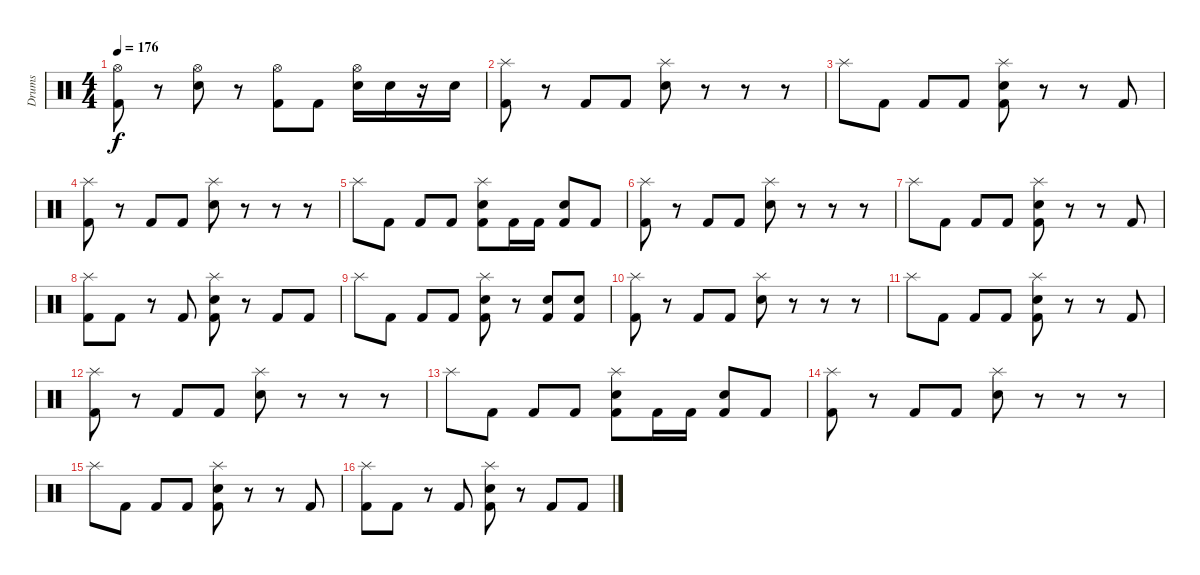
\track ("Drums" "Drums") {instrument percussion}
\staff {score}
\articulation defaults
\ts (4 4)
\tempo 176
\clef neutral
\ks c
("Hi-Hat (open)" "Kick (hit) 2").8{dy f} r.8 ("Electric Snare (hit)" "Hi-Hat (open)").8 r.8 ("Hi-Hat (open)" "Kick (hit) 2").8 "Kick (hit) 2".8 ("Electric Snare (hit)" "Hi-Hat (open)").16 "Electric Snare (hit)".16 r.16 "Electric Snare (hit)".16 |
("Splash (hit)" "Kick (hit) 2").8 r.8 "Kick (hit) 2".8 "Kick (hit) 2".8 ("Splash (hit)" "Electric Snare (hit)").8 r.8 r.8 r.8 |
"Splash (hit)".8 "Kick (hit) 2".8 "Kick (hit) 2".8 "Kick (hit) 2".8 ("Splash (hit)" "Electric Snare (hit)" "Kick (hit) 2").8 r.8 r.8 "Kick (hit) 2".8 |
("Splash (hit)" "Kick (hit) 2").8 r.8 "Kick (hit) 2".8 "Kick (hit) 2".8 ("Splash (hit)" "Electric Snare (hit)").8 r.8 r.8 r.8 |
"Splash (hit)".8 "Kick (hit) 2".8 "Kick (hit) 2".8 "Kick (hit) 2".8 ("Splash (hit)" "Electric Snare (hit)" "Kick (hit) 2").8 "Kick (hit) 2".16 "Kick (hit) 2".16 ("Electric Snare (hit)" "Kick (hit) 2").8 "Kick (hit) 2".8 |
("Splash (hit)" "Kick (hit) 2").8 r.8 "Kick (hit) 2".8 "Kick (hit) 2".8 ("Splash (hit)" "Electric Snare (hit)").8 r.8 r.8 r.8 |
"Splash (hit)".8 "Kick (hit) 2".8 "Kick (hit) 2".8 "Kick (hit) 2".8 ("Splash (hit)" "Electric Snare (hit)" "Kick (hit) 2").8 r.8 r.8 "Kick (hit) 2".8 |
("Splash (hit)" "Kick (hit) 2").8 "Kick (hit) 2".8 r.8 "Kick (hit) 2".8 ("Splash (hit)" "Electric Snare (hit)" "Kick (hit) 2").8 r.8 "Kick (hit) 2".8 "Kick (hit) 2".8 |
"Splash (hit)".8 "Kick (hit) 2".8 "Kick (hit) 2".8 "Kick (hit) 2".8 ("Splash (hit)" "Electric Snare (hit)" "Kick (hit) 2").8 r.8 ("Electric Snare (hit)" "Kick (hit) 2").8 ("Electric Snare (hit)" "Kick (hit) 2").8 |
("Splash (hit)" "Kick (hit) 2").8 r.8 "Kick (hit) 2".8 "Kick (hit) 2".8 ("Splash (hit)" "Electric Snare (hit)").8 r.8 r.8 r.8 |
"Splash (hit)".8 "Kick (hit) 2".8 "Kick (hit) 2".8 "Kick (hit) 2".8 ("Splash (hit)" "Electric Snare (hit)" "Kick (hit) 2").8 r.8 r.8 "Kick (hit) 2".8 |
("Splash (hit)" "Kick (hit) 2").8 r.8 "Kick (hit) 2".8 "Kick (hit) 2".8 ("Splash (hit)" "Electric Snare (hit)").8 r.8 r.8 r.8 |
"Splash (hit)".8 "Kick (hit) 2".8 "Kick (hit) 2".8 "Kick (hit) 2".8 ("Splash (hit)" "Electric Snare (hit)" "Kick (hit) 2").8 "Kick (hit) 2".16 "Kick (hit) 2".16 ("Electric Snare (hit)" "Kick (hit) 2").8 "Kick (hit) 2".8 |
("Splash (hit)" "Kick (hit) 2").8 r.8 "Kick (hit) 2".8 "Kick (hit) 2".8 ("Splash (hit)" "Electric Snare (hit)").8 r.8 r.8 r.8 |
"Splash (hit)".8 "Kick (hit) 2".8 "Kick (hit) 2".8 "Kick (hit) 2".8 ("Splash (hit)" "Electric Snare (hit)" "Kick (hit) 2").8 r.8 r.8 "Kick (hit) 2".8 |
("Splash (hit)" "Kick (hit) 2").8 "Kick (hit) 2".8 r.8 "Kick (hit) 2".8 ("Splash (hit)" "Electric Snare (hit)" "Kick (hit) 2").8 r.8 "Kick (hit) 2".8 "Kick (hit) 2".8
